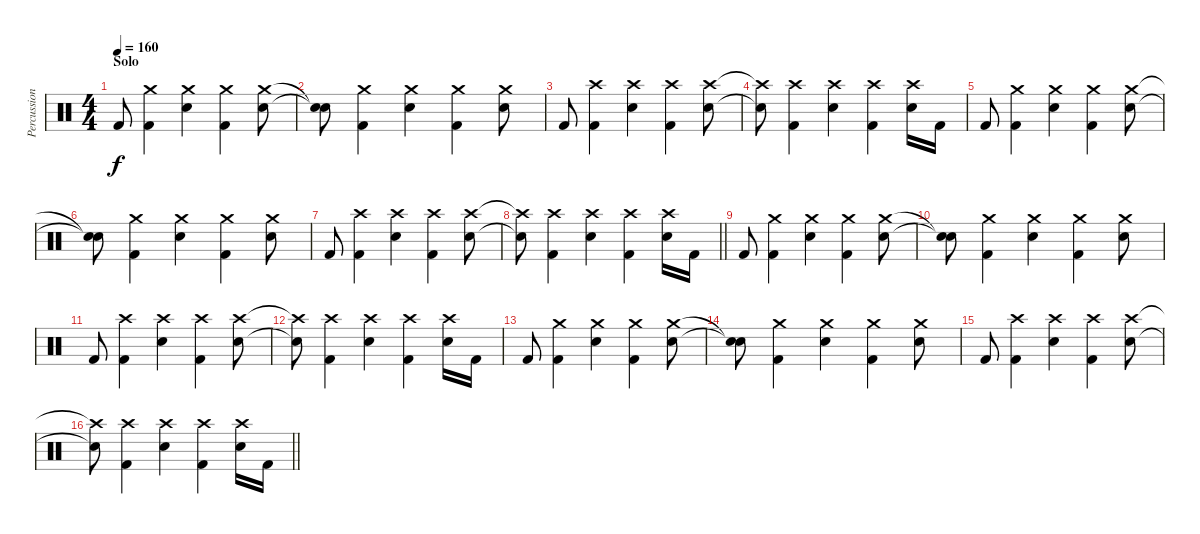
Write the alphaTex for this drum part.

\track ("Percussion" "Percussion") {instrument percussion}
\staff {score}
\articulation defaults
\ts (4 4)
\section ("" "Solo")
\tempo 160
\clef neutral
\ks c "Kick (hit) 2".8{dy f}
("Crash medium (hit)" "Kick (hit) 2").4 ("Crash medium (hit)" "Electric Snare (hit)").4 ("Crash medium (hit)" "Kick (hit) 2").4 ("Crash medium (hit)" "Electric Snare (hit)").8 |
("Snare (hit)"{t} "Snare (hit)"{t}).8 ("Crash medium (hit)" "Kick (hit) 2").4 ("Crash medium (hit)" "Electric Snare (hit)").4 ("Crash medium (hit)" "Kick (hit) 2").4 ("Crash medium (hit)" "Electric Snare (hit)").8 |
"Kick (hit) 2".8 ("Crash high (hit)" "Kick (hit) 2").4 ("Crash high (hit)" "Electric Snare (hit)").4 ("Crash high (hit)" "Kick (hit) 2").4 ("Crash high (hit)" "Electric Snare (hit)").8 |
("Crash high (hit)"{t} "Snare (hit)"{t}).8 ("Crash high (hit)" "Kick (hit) 2").4 ("Crash high (hit)" "Electric Snare (hit)").4 ("Crash high (hit)" "Kick (hit) 2").4 ("Crash high (hit)" "Electric Snare (hit)").16 "Kick (hit) 2".16 |
"Kick (hit) 2".8 ("Crash medium (hit)" "Kick (hit) 2").4 ("Crash medium (hit)" "Electric Snare (hit)").4 ("Crash medium (hit)" "Kick (hit) 2").4 ("Crash medium (hit)" "Electric Snare (hit)").8 |
("Snare (hit)"{t} "Snare (hit)"{t}).8 ("Crash medium (hit)" "Kick (hit) 2").4 ("Crash medium (hit)" "Electric Snare (hit)").4 ("Crash medium (hit)" "Kick (hit) 2").4 ("Crash medium (hit)" "Electric Snare (hit)").8 |
"Kick (hit) 2".8 ("Crash high (hit)" "Kick (hit) 2").4 ("Crash high (hit)" "Electric Snare (hit)").4 ("Crash high (hit)" "Kick (hit) 2").4 ("Crash high (hit)" "Electric Snare (hit)").8 |
\barLineRight lightlight
("Crash high (hit)"{t} "Snare (hit)"{t}).8 ("Crash high (hit)" "Kick (hit) 2").4 ("Crash high (hit)" "Electric Snare (hit)").4 ("Crash high (hit)" "Kick (hit) 2").4 ("Crash high (hit)" "Electric Snare (hit)").16 "Kick (hit) 2".16 |
"Kick (hit) 2".8 ("Crash medium (hit)" "Kick (hit) 2").4 ("Crash medium (hit)" "Electric Snare (hit)").4 ("Crash medium (hit)" "Kick (hit) 2").4 ("Crash medium (hit)" "Electric Snare (hit)").8 |
("Snare (hit)"{t} "Snare (hit)"{t}).8 ("Crash medium (hit)" "Kick (hit) 2").4 ("Crash medium (hit)" "Electric Snare (hit)").4 ("Crash medium (hit)" "Kick (hit) 2").4 ("Crash medium (hit)" "Electric Snare (hit)").8 |
"Kick (hit) 2".8 ("Crash high (hit)" "Kick (hit) 2").4 ("Crash high (hit)" "Electric Snare (hit)").4 ("Crash high (hit)" "Kick (hit) 2").4 ("Crash high (hit)" "Electric Snare (hit)").8 |
("Crash high (hit)"{t} "Snare (hit)"{t}).8 ("Crash high (hit)" "Kick (hit) 2").4 ("Crash high (hit)" "Electric Snare (hit)").4 ("Crash high (hit)" "Kick (hit) 2").4 ("Crash high (hit)" "Electric Snare (hit)").16 "Kick (hit) 2".16 |
"Kick (hit) 2".8 ("Crash medium (hit)" "Kick (hit) 2").4 ("Crash medium (hit)" "Electric Snare (hit)").4 ("Crash medium (hit)" "Kick (hit) 2").4 ("Crash medium (hit)" "Electric Snare (hit)").8 |
("Snare (hit)"{t} "Snare (hit)"{t}).8 ("Crash medium (hit)" "Kick (hit) 2").4 ("Crash medium (hit)" "Electric Snare (hit)").4 ("Crash medium (hit)" "Kick (hit) 2").4 ("Crash medium (hit)" "Electric Snare (hit)").8 |
"Kick (hit) 2".8 ("Crash high (hit)" "Kick (hit) 2").4 ("Crash high (hit)" "Electric Snare (hit)").4 ("Crash high (hit)" "Kick (hit) 2").4 ("Crash high (hit)" "Electric Snare (hit)").8 |
\barLineRight lightlight
("Crash high (hit)"{t} "Snare (hit)"{t}).8 ("Crash high (hit)" "Kick (hit) 2").4 ("Crash high (hit)" "Electric Snare (hit)").4 ("Crash high (hit)" "Kick (hit) 2").4 ("Crash high (hit)" "Electric Snare (hit)").16 "Kick (hit) 2".16
